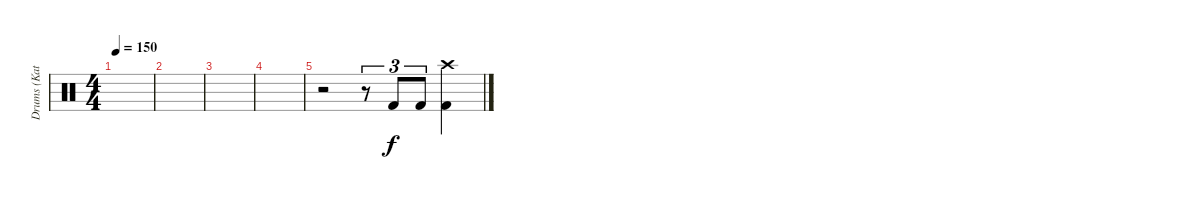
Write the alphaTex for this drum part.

\track ("Drums (Katsuji)" "Drums (Kat") {instrument percussion}
\staff {score}
\articulation defaults
\ts (4 4)
\tempo 150
\clef neutral
\ks c
|
|
|
|
r.2 r.8{tu (3 2)} "Kick (hit) 2".8{tu (3 2)} "Kick (hit) 2".8{tu (3 2)} ("Crash high (hit)" "Kick (hit) 2").4
